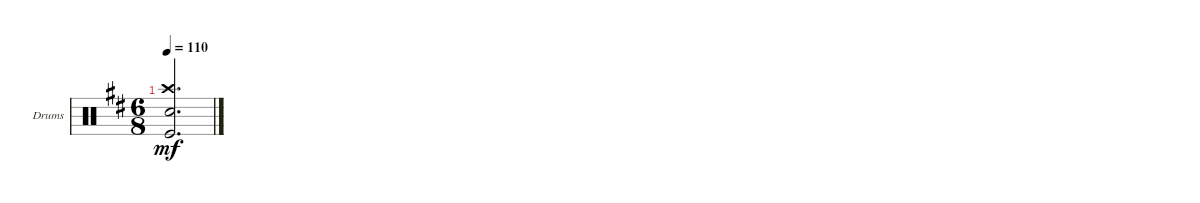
\defaultSystemsLayout 4
\bracketExtendMode groupsimilarinstruments
\firstSystemTrackNameOrientation horizontal
\otherSystemsTrackNameOrientation horizontal
\track ("Drumkit" "Drums") {instrument percussion}
\staff {score}
\articulation defaults
\ts (6 8)
\tempo 110
\clef neutral
\ks d
("Kick (hit)"{t} "Crash high (hit)"{t} "Snare (hit) 2"{t}).2{d dy mf}
